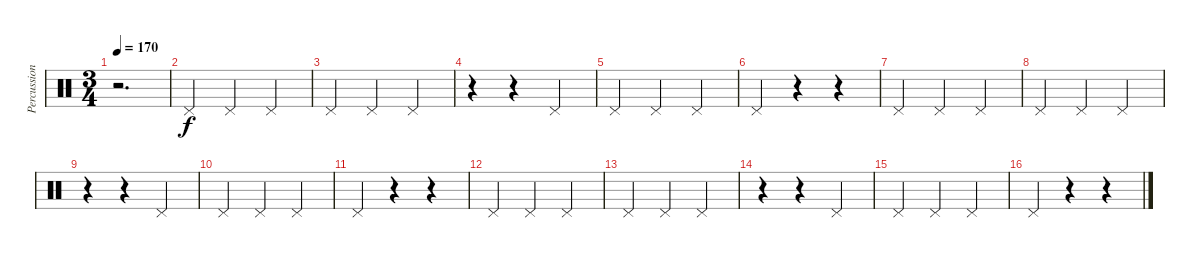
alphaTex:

\track ("Percussion" "Percussion") {instrument percussion}
\staff {score}
\articulation defaults
\ts (3 4)
\tempo 170
\clef neutral
\ks c
r.2{d dy f} |
"Pedal Hi-Hat (hit)".4 "Pedal Hi-Hat (hit)".4 "Pedal Hi-Hat (hit)".4 |
"Pedal Hi-Hat (hit)".4 "Pedal Hi-Hat (hit)".4 "Pedal Hi-Hat (hit)".4 |
r.4 r.4 "Pedal Hi-Hat (hit)".4 |
"Pedal Hi-Hat (hit)".4 "Pedal Hi-Hat (hit)".4 "Pedal Hi-Hat (hit)".4 |
"Pedal Hi-Hat (hit)".4 r.4 r.4 |
"Pedal Hi-Hat (hit)".4 "Pedal Hi-Hat (hit)".4 "Pedal Hi-Hat (hit)".4 |
"Pedal Hi-Hat (hit)".4 "Pedal Hi-Hat (hit)".4 "Pedal Hi-Hat (hit)".4 |
r.4 r.4 "Pedal Hi-Hat (hit)".4 |
"Pedal Hi-Hat (hit)".4 "Pedal Hi-Hat (hit)".4 "Pedal Hi-Hat (hit)".4 |
"Pedal Hi-Hat (hit)".4 r.4 r.4 |
"Pedal Hi-Hat (hit)".4 "Pedal Hi-Hat (hit)".4 "Pedal Hi-Hat (hit)".4 |
"Pedal Hi-Hat (hit)".4 "Pedal Hi-Hat (hit)".4 "Pedal Hi-Hat (hit)".4 |
r.4 r.4 "Pedal Hi-Hat (hit)".4 |
"Pedal Hi-Hat (hit)".4 "Pedal Hi-Hat (hit)".4 "Pedal Hi-Hat (hit)".4 |
"Pedal Hi-Hat (hit)".4 r.4 r.4
